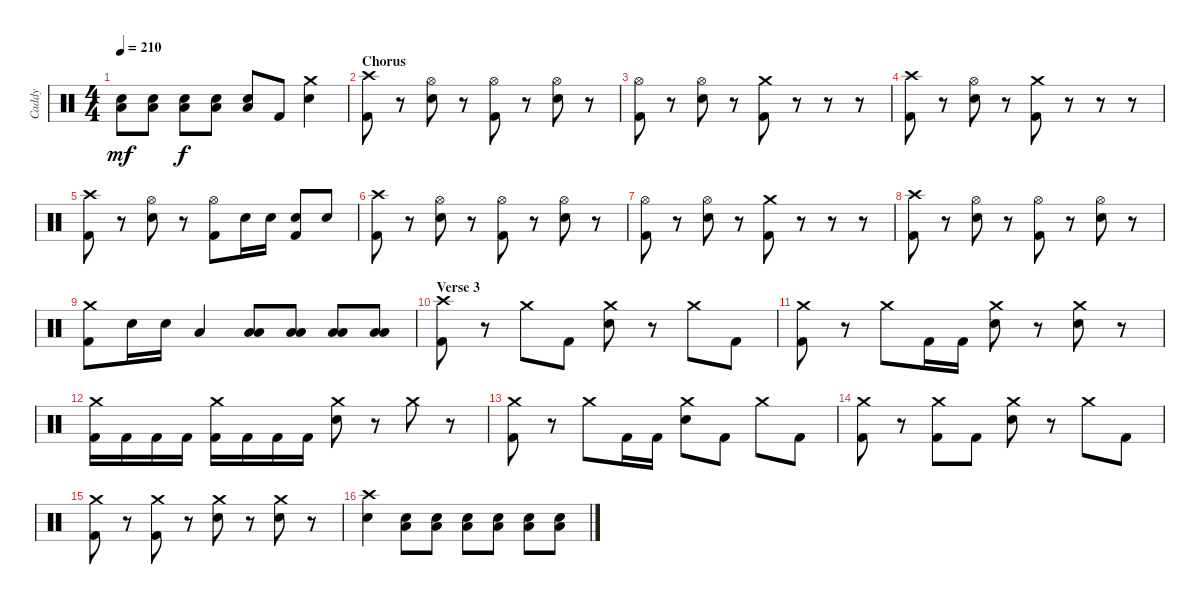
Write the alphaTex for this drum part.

\track ("Caddy" "Caddy") {instrument percussion}
\staff {score}
\articulation defaults
\ts (4 4)
\tempo 210
\clef neutral
\ks c
("Electric Snare (hit)" "Low Floor Tom (hit)").8{dy mf} ("Electric Snare (hit)" "Low Floor Tom (hit)").8 ("Electric Snare (hit)" "Low Floor Tom (hit)").8{dy f} ("Electric Snare (hit)" "Low Floor Tom (hit)").8 ("Electric Snare (hit)" "Low Floor Tom (hit)").8 "Kick (hit) 2".8 ("Crash medium (hit)" "Electric Snare (hit)").4 |
\section ("" "Chorus")
("Crash high (hit)" "Kick (hit) 2").8 r.8 ("Hi-Hat (open)" "Electric Snare (hit)").8 r.8 ("Hi-Hat (open)" "Kick (hit) 2").8 r.8 ("Hi-Hat (open)" "Electric Snare (hit)").8 r.8 |
("Hi-Hat (open)" "Kick (hit) 2").8 r.8 ("Hi-Hat (open)" "Electric Snare (hit)").8 r.8 ("Crash medium (hit)" "Kick (hit) 2").8 r.8 r.8 r.8 |
("Crash high (hit)" "Kick (hit) 2").8 r.8 ("Hi-Hat (open)" "Electric Snare (hit)").8 r.8 ("Crash medium (hit)" "Kick (hit) 2").8 r.8 r.8 r.8 |
("Crash high (hit)" "Kick (hit) 2").8 r.8 ("Hi-Hat (open)" "Electric Snare (hit)").8 r.8 ("Hi-Hat (open)" "Kick (hit) 2").8 "Electric Snare (hit)".16 "Electric Snare (hit)".16 ("Electric Snare (hit)" "Kick (hit) 2").8 "Electric Snare (hit)".8 |
("Crash high (hit)" "Kick (hit) 2").8 r.8 ("Hi-Hat (open)" "Electric Snare (hit)").8 r.8 ("Hi-Hat (open)" "Kick (hit) 2").8 r.8 ("Hi-Hat (open)" "Electric Snare (hit)").8 r.8 |
("Hi-Hat (open)" "Kick (hit) 2").8 r.8 ("Hi-Hat (open)" "Electric Snare (hit)").8 r.8 ("Crash medium (hit)" "Kick (hit) 2").8 r.8 r.8 r.8 |
("Crash high (hit)" "Kick (hit) 2").8 r.8 ("Hi-Hat (open)" "Electric Snare (hit)").8 r.8 ("Hi-Hat (open)" "Kick (hit) 2").8 r.8 ("Hi-Hat (open)" "Electric Snare (hit)").8 r.8 |
("Crash medium (hit)" "Kick (hit) 2").8 "Electric Snare (hit)".16 "Electric Snare (hit)".16 "Low Tom (hit)".4 ("Low Tom (hit)" "Low Floor Tom (hit)").8 ("Low Tom (hit)" "Low Floor Tom (hit)").8 ("Low Tom (hit)" "Low Floor Tom (hit)").8 ("Low Tom (hit)" "Low Floor Tom (hit)").8 |
\section ("" "Verse 3")
("Crash high (hit)" "Kick (hit) 2").8 r.8 "Crash medium (hit)".8 "Kick (hit) 2".8 ("Crash medium (hit)" "Electric Snare (hit)").8 r.8 "Crash medium (hit)".8 "Kick (hit) 2".8 |
("Crash medium (hit)" "Kick (hit) 2").8 r.8 "Crash medium (hit)".8 "Kick (hit) 2".16 "Kick (hit) 2".16 ("Crash medium (hit)" "Electric Snare (hit)").8 r.8 ("Crash medium (hit)" "Electric Snare (hit)").8 r.8 |
("Crash medium (hit)" "Kick (hit) 2").16 "Kick (hit) 2".16 "Kick (hit) 2".16 "Kick (hit) 2".16 ("Crash medium (hit)" "Kick (hit) 2").16 "Kick (hit) 2".16 "Kick (hit) 2".16 "Kick (hit) 2".16 ("Crash medium (hit)" "Electric Snare (hit)").8 r.8 "Crash medium (hit)".8 r.8 |
("Crash medium (hit)" "Kick (hit) 2").8 r.8 "Crash medium (hit)".8 "Kick (hit) 2".16 "Kick (hit) 2".16 ("Crash medium (hit)" "Electric Snare (hit)").8 "Kick (hit) 2".8 "Crash medium (hit)".8 "Kick (hit) 2".8 |
("Crash medium (hit)" "Kick (hit) 2").8 r.8 ("Crash medium (hit)" "Kick (hit) 2").8 "Kick (hit) 2".8 ("Crash medium (hit)" "Electric Snare (hit)").8 r.8 "Crash medium (hit)".8 "Kick (hit) 2".8 |
("Crash medium (hit)" "Kick (hit) 2").8 r.8 ("Crash medium (hit)" "Kick (hit) 2").8 r.8 ("Crash medium (hit)" "Electric Snare (hit)").8 r.8 ("Crash medium (hit)" "Electric Snare (hit)").8 r.8 |
("Crash high (hit)" "Electric Snare (hit)").4 ("Low Tom (hit)" "Electric Snare (hit)").8 ("Electric Snare (hit)" "Low Floor Tom (hit)").8 ("Low Tom (hit)" "Electric Snare (hit)").8 ("Electric Snare (hit)" "Low Floor Tom (hit)").8 ("Low Tom (hit)" "Electric Snare (hit)").8 ("Electric Snare (hit)" "Low Floor Tom (hit)").8
